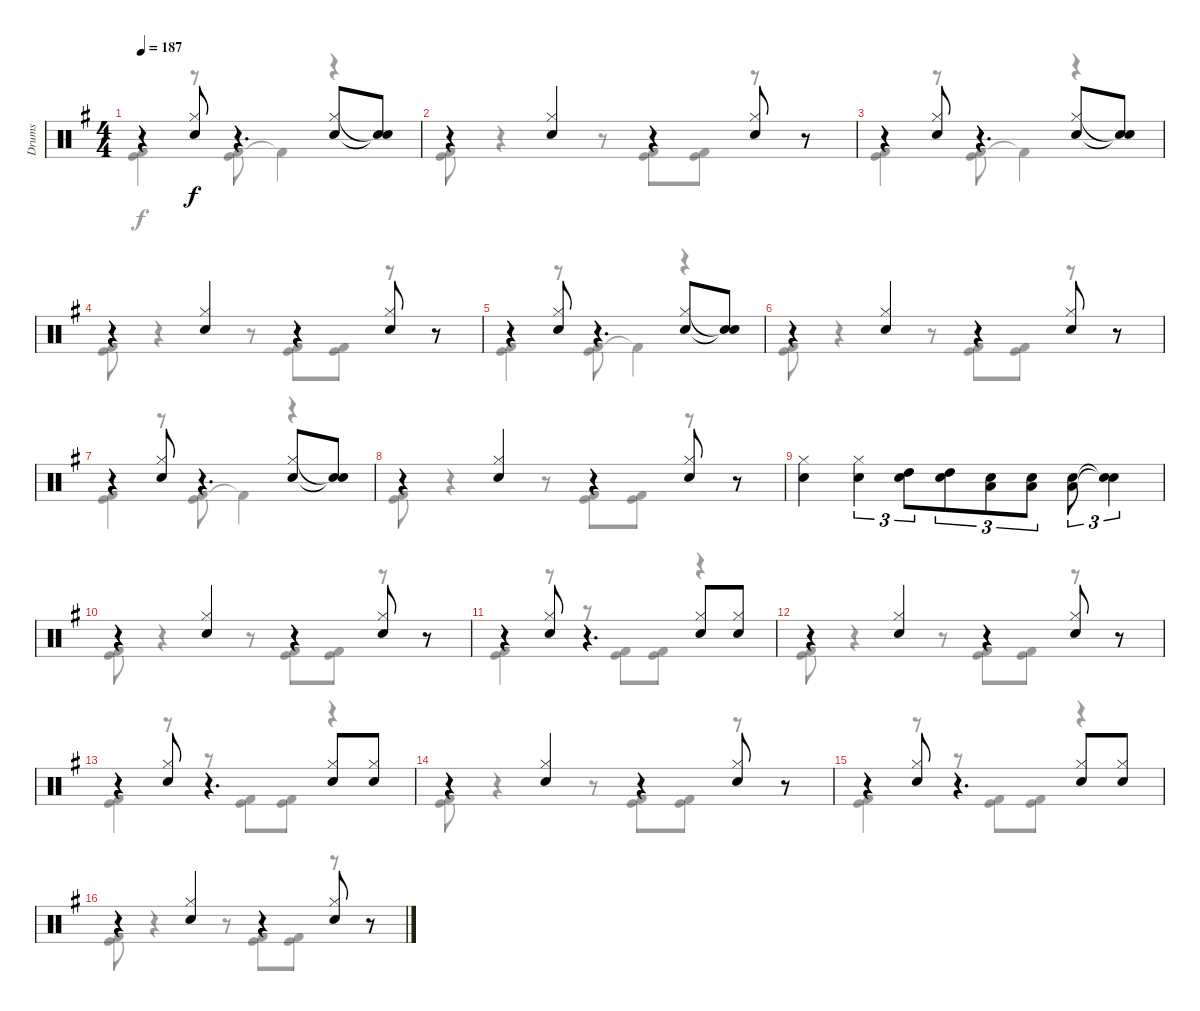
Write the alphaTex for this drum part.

\track ("Drums" "Drums") {instrument percussion}
\staff {score}
\articulation defaults
\voice
\ts (4 4)
\tempo 187
\clef neutral
\ks g
r.4{dy f} ("Hi-Hat (closed)" "Electric Snare (hit)").8 r.4{d} ("Hi-Hat (closed)" "Electric Snare (hit)").8 ("Snare (hit)"{t} "Snare (hit)"{t}).8 |
r.4 ("Hi-Hat (closed)" "Electric Snare (hit)").4 r.4 ("Hi-Hat (closed)" "Electric Snare (hit)").8 r.8 |
r.4 ("Hi-Hat (closed)" "Electric Snare (hit)").8 r.4{d} ("Hi-Hat (closed)" "Electric Snare (hit)").8 ("Snare (hit)"{t} "Snare (hit)"{t}).8 |
r.4 ("Hi-Hat (closed)" "Electric Snare (hit)").4 r.4 ("Hi-Hat (closed)" "Electric Snare (hit)").8 r.8 |
r.4 ("Hi-Hat (closed)" "Electric Snare (hit)").8 r.4{d} ("Hi-Hat (closed)" "Electric Snare (hit)").8 ("Snare (hit)"{t} "Snare (hit)"{t}).8 |
r.4 ("Hi-Hat (closed)" "Electric Snare (hit)").4 r.4 ("Hi-Hat (closed)" "Electric Snare (hit)").8 r.8 |
r.4 ("Hi-Hat (closed)" "Electric Snare (hit)").8 r.4{d} ("Hi-Hat (closed)" "Electric Snare (hit)").8 ("Snare (hit)"{t} "Snare (hit)"{t}).8 |
r.4 ("Hi-Hat (closed)" "Electric Snare (hit)").4 r.4 ("Hi-Hat (closed)" "Electric Snare (hit)").8 r.8 |
("Hi-Hat (closed)" "Electric Snare (hit)").4 ("Hi-Hat (closed)" "Electric Snare (hit)").4{tu (3 2)} ("High Tom (hit)" "Electric Snare (hit)").8{tu (3 2) beam merge} ("High Tom (hit)" "Electric Snare (hit)").8{tu (3 2)} ("Low Tom (hit)" "Electric Snare (hit)").8{tu (3 2) beam merge} ("Low Tom (hit)" "Electric Snare (hit)").8{tu (3 2)} ("Low Tom (hit)" "Electric Snare (hit)").8{tu (3 2)} ("Snare (hit)"{t} "Snare (hit)"{t}).4{tu (3 2)} |
r.4 ("Hi-Hat (closed)" "Electric Snare (hit)").4 r.4 ("Hi-Hat (closed)" "Electric Snare (hit)").8 r.8 |
r.4 ("Hi-Hat (closed)" "Electric Snare (hit)").8 r.4{d} ("Hi-Hat (closed)" "Electric Snare (hit)").8 ("Hi-Hat (closed)" "Electric Snare (hit)").8 |
r.4 ("Hi-Hat (closed)" "Electric Snare (hit)").4 r.4 ("Hi-Hat (closed)" "Electric Snare (hit)").8 r.8 |
r.4 ("Hi-Hat (closed)" "Electric Snare (hit)").8 r.4{d} ("Hi-Hat (closed)" "Electric Snare (hit)").8 ("Hi-Hat (closed)" "Electric Snare (hit)").8 |
r.4 ("Hi-Hat (closed)" "Electric Snare (hit)").4 r.4 ("Hi-Hat (closed)" "Electric Snare (hit)").8 r.8 |
r.4 ("Hi-Hat (closed)" "Electric Snare (hit)").8 r.4{d} ("Hi-Hat (closed)" "Electric Snare (hit)").8 ("Hi-Hat (closed)" "Electric Snare (hit)").8 |
r.4 ("Hi-Hat (closed)" "Electric Snare (hit)").4 r.4 ("Hi-Hat (closed)" "Electric Snare (hit)").8 r.8
\voice
\clef neutral
\ottava regular
\simile none
\ks g
("Kick (hit)" "Kick (hit) 2").4{dy f} r.8 ("Kick (hit)" "Kick (hit) 2").8 "Kick (hit) 2"{t}.4 r.4 |
("Kick (hit)" "Kick (hit) 2").8 r.4 r.8 ("Kick (hit)" "Kick (hit) 2").8 ("Kick (hit)" "Kick (hit) 2").8 r.8 r.8 |
("Kick (hit)" "Kick (hit) 2").4 r.8 ("Kick (hit)" "Kick (hit) 2").8 "Kick (hit) 2"{t}.4 r.4 |
("Kick (hit)" "Kick (hit) 2").8 r.4 r.8 ("Kick (hit)" "Kick (hit) 2").8 ("Kick (hit)" "Kick (hit) 2").8 r.8 r.8 |
("Kick (hit)" "Kick (hit) 2").4 r.8 ("Kick (hit)" "Kick (hit) 2").8 "Kick (hit) 2"{t}.4 r.4 |
("Kick (hit)" "Kick (hit) 2").8 r.4 r.8 ("Kick (hit)" "Kick (hit) 2").8 ("Kick (hit)" "Kick (hit) 2").8 r.8 r.8 |
("Kick (hit)" "Kick (hit) 2").4 r.8 ("Kick (hit)" "Kick (hit) 2").8 "Kick (hit) 2"{t}.4 r.4 |
("Kick (hit)" "Kick (hit) 2").8 r.4 r.8 ("Kick (hit)" "Kick (hit) 2").8 ("Kick (hit)" "Kick (hit) 2").8 r.8 r.8 |
|
("Kick (hit)" "Kick (hit) 2").8 r.4 r.8 ("Kick (hit)" "Kick (hit) 2").8 ("Kick (hit)" "Kick (hit) 2").8 r.8 r.8 |
("Kick (hit)" "Kick (hit) 2").4 r.8 r.8 ("Kick (hit)" "Kick (hit) 2").8 ("Kick (hit)" "Kick (hit) 2").8 r.4 |
("Kick (hit)" "Kick (hit) 2").8 r.4 r.8 ("Kick (hit)" "Kick (hit) 2").8 ("Kick (hit)" "Kick (hit) 2").8 r.8 r.8 |
("Kick (hit)" "Kick (hit) 2").4 r.8 r.8 ("Kick (hit)" "Kick (hit) 2").8 ("Kick (hit)" "Kick (hit) 2").8 r.4 |
("Kick (hit)" "Kick (hit) 2").8 r.4 r.8 ("Kick (hit)" "Kick (hit) 2").8 ("Kick (hit)" "Kick (hit) 2").8 r.8 r.8 |
("Kick (hit)" "Kick (hit) 2").4 r.8 r.8 ("Kick (hit)" "Kick (hit) 2").8 ("Kick (hit)" "Kick (hit) 2").8 r.4 |
("Kick (hit)" "Kick (hit) 2").8 r.4 r.8 ("Kick (hit)" "Kick (hit) 2").8 ("Kick (hit)" "Kick (hit) 2").8 r.8 r.8
